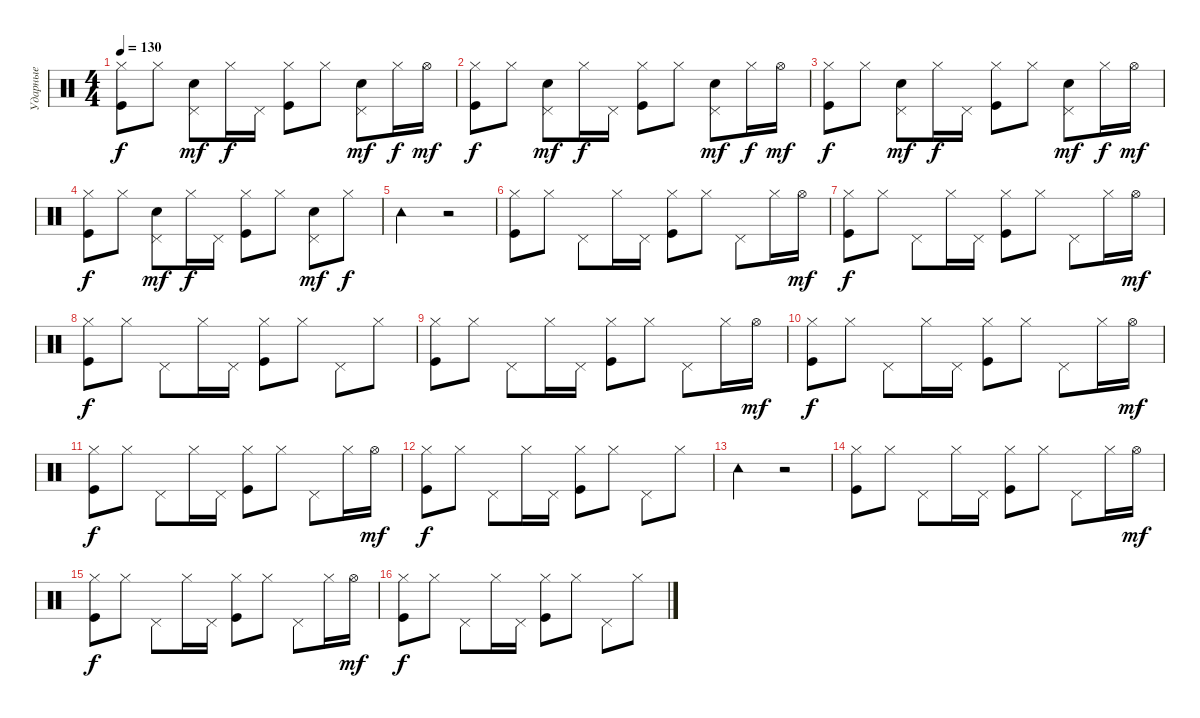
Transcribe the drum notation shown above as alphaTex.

\track ("Ударные" "Ударные") {instrument percussion}
\staff {score}
\articulation defaults
\ts (4 4)
\tempo 130
\clef neutral
\ks c
("Hi-Hat (closed)" "Kick (hit)").8{dy f} "Hi-Hat (closed)".8 ("Pedal Hi-Hat (hit)" "Metronome (bell)").8{dy mf} "Hi-Hat (closed)".16{dy f} "Pedal Hi-Hat (hit)".16 ("Hi-Hat (closed)" "Kick (hit)").8 "Hi-Hat (closed)".8 ("Pedal Hi-Hat (hit)" "Metronome (bell)").8{dy mf} "Hi-Hat (closed)".16{dy f} "Hi-Hat (open)".16{dy mf} |
("Hi-Hat (closed)" "Kick (hit)").8{dy f} "Hi-Hat (closed)".8 ("Pedal Hi-Hat (hit)" "Metronome (bell)").8{dy mf} "Hi-Hat (closed)".16{dy f} "Pedal Hi-Hat (hit)".16 ("Hi-Hat (closed)" "Kick (hit)").8 "Hi-Hat (closed)".8 ("Pedal Hi-Hat (hit)" "Metronome (bell)").8{dy mf} "Hi-Hat (closed)".16{dy f} "Hi-Hat (open)".16{dy mf} |
("Hi-Hat (closed)" "Kick (hit)").8{dy f} "Hi-Hat (closed)".8 ("Pedal Hi-Hat (hit)" "Metronome (bell)").8{dy mf} "Hi-Hat (closed)".16{dy f} "Pedal Hi-Hat (hit)".16 ("Hi-Hat (closed)" "Kick (hit)").8 "Hi-Hat (closed)".8 ("Pedal Hi-Hat (hit)" "Metronome (bell)").8{dy mf} "Hi-Hat (closed)".16{dy f} "Hi-Hat (open)".16{dy mf} |
("Hi-Hat (closed)" "Kick (hit)").8{dy f} "Hi-Hat (closed)".8 ("Pedal Hi-Hat (hit)" "Metronome (bell)").8{dy mf} "Hi-Hat (closed)".16{dy f} "Pedal Hi-Hat (hit)".16 ("Hi-Hat (closed)" "Kick (hit)").8 "Hi-Hat (closed)".8 ("Pedal Hi-Hat (hit)" "Metronome (bell)").8{dy mf} "Hi-Hat (closed)".8{dy f} |
"Tambourine (hit)".2 r.2 |
("Hi-Hat (closed)" "Kick (hit)").8 "Hi-Hat (closed)".8 "Pedal Hi-Hat (hit)".8 "Hi-Hat (closed)".16 "Pedal Hi-Hat (hit)".16 ("Hi-Hat (closed)" "Kick (hit)").8 "Hi-Hat (closed)".8 "Pedal Hi-Hat (hit)".8 "Hi-Hat (closed)".16 "Hi-Hat (open)".16{dy mf} |
("Hi-Hat (closed)" "Kick (hit)").8{dy f} "Hi-Hat (closed)".8 "Pedal Hi-Hat (hit)".8 "Hi-Hat (closed)".16 "Pedal Hi-Hat (hit)".16 ("Hi-Hat (closed)" "Kick (hit)").8 "Hi-Hat (closed)".8 "Pedal Hi-Hat (hit)".8 "Hi-Hat (closed)".16 "Hi-Hat (open)".16{dy mf} |
("Hi-Hat (closed)" "Kick (hit)").8{dy f} "Hi-Hat (closed)".8 "Pedal Hi-Hat (hit)".8 "Hi-Hat (closed)".16 "Pedal Hi-Hat (hit)".16 ("Hi-Hat (closed)" "Kick (hit)").8 "Hi-Hat (closed)".8 "Pedal Hi-Hat (hit)".8 "Hi-Hat (closed)".8 |
("Hi-Hat (closed)" "Kick (hit)").8 "Hi-Hat (closed)".8 "Pedal Hi-Hat (hit)".8 "Hi-Hat (closed)".16 "Pedal Hi-Hat (hit)".16 ("Hi-Hat (closed)" "Kick (hit)").8 "Hi-Hat (closed)".8 "Pedal Hi-Hat (hit)".8 "Hi-Hat (closed)".16 "Hi-Hat (open)".16{dy mf} |
("Hi-Hat (closed)" "Kick (hit)").8{dy f} "Hi-Hat (closed)".8 "Pedal Hi-Hat (hit)".8 "Hi-Hat (closed)".16 "Pedal Hi-Hat (hit)".16 ("Hi-Hat (closed)" "Kick (hit)").8 "Hi-Hat (closed)".8 "Pedal Hi-Hat (hit)".8 "Hi-Hat (closed)".16 "Hi-Hat (open)".16{dy mf} |
("Hi-Hat (closed)" "Kick (hit)").8{dy f} "Hi-Hat (closed)".8 "Pedal Hi-Hat (hit)".8 "Hi-Hat (closed)".16 "Pedal Hi-Hat (hit)".16 ("Hi-Hat (closed)" "Kick (hit)").8 "Hi-Hat (closed)".8 "Pedal Hi-Hat (hit)".8 "Hi-Hat (closed)".16 "Hi-Hat (open)".16{dy mf} |
("Hi-Hat (closed)" "Kick (hit)").8{dy f} "Hi-Hat (closed)".8 "Pedal Hi-Hat (hit)".8 "Hi-Hat (closed)".16 "Pedal Hi-Hat (hit)".16 ("Hi-Hat (closed)" "Kick (hit)").8 "Hi-Hat (closed)".8 "Pedal Hi-Hat (hit)".8 "Hi-Hat (closed)".8 |
"Tambourine (hit)".2 r.2 |
("Hi-Hat (closed)" "Kick (hit)").8 "Hi-Hat (closed)".8 "Pedal Hi-Hat (hit)".8 "Hi-Hat (closed)".16 "Pedal Hi-Hat (hit)".16 ("Hi-Hat (closed)" "Kick (hit)").8 "Hi-Hat (closed)".8 "Pedal Hi-Hat (hit)".8 "Hi-Hat (closed)".16 "Hi-Hat (open)".16{dy mf} |
("Hi-Hat (closed)" "Kick (hit)").8{dy f} "Hi-Hat (closed)".8 "Pedal Hi-Hat (hit)".8 "Hi-Hat (closed)".16 "Pedal Hi-Hat (hit)".16 ("Hi-Hat (closed)" "Kick (hit)").8 "Hi-Hat (closed)".8 "Pedal Hi-Hat (hit)".8 "Hi-Hat (closed)".16 "Hi-Hat (open)".16{dy mf} |
("Hi-Hat (closed)" "Kick (hit)").8{dy f} "Hi-Hat (closed)".8 "Pedal Hi-Hat (hit)".8 "Hi-Hat (closed)".16 "Pedal Hi-Hat (hit)".16 ("Hi-Hat (closed)" "Kick (hit)").8 "Hi-Hat (closed)".8 "Pedal Hi-Hat (hit)".8 "Hi-Hat (closed)".8
